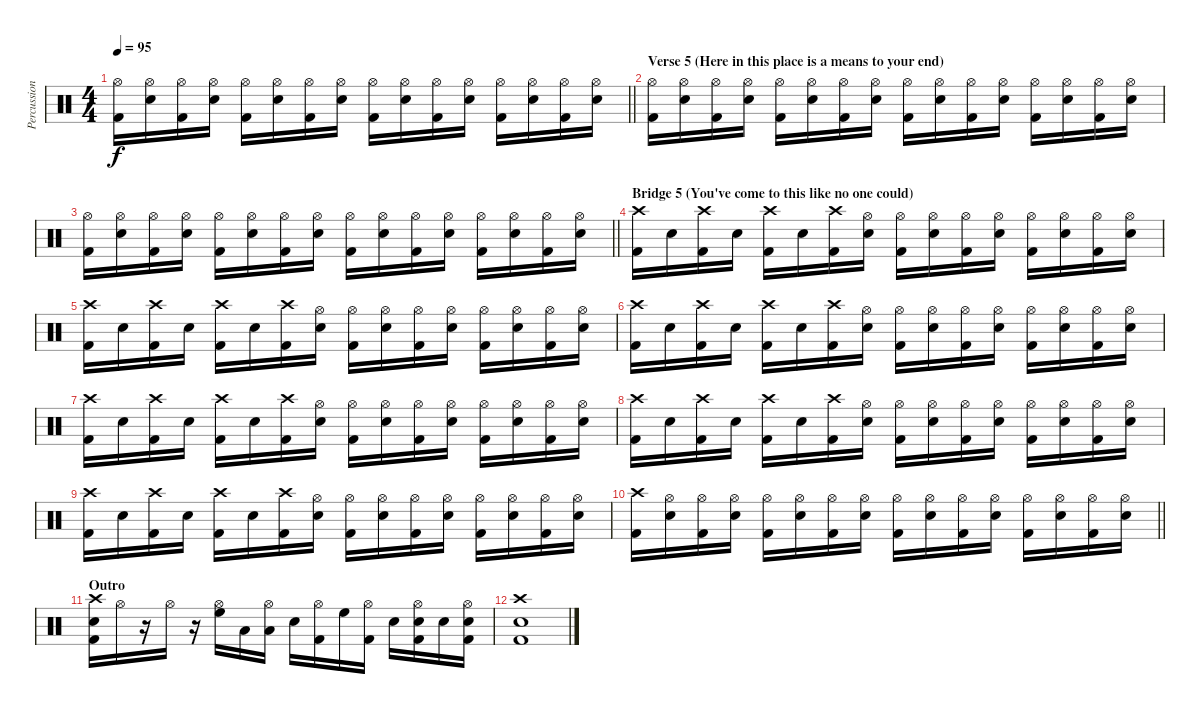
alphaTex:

\track ("Percussion" "Percussion") {instrument percussion}
\staff {score}
\articulation defaults
\ts (4 4)
\tempo 95
\clef neutral
\barLineRight lightlight
\ks c
("Hi-Hat (open)" "Kick (hit) 2").16{dy f} ("Hi-Hat (open)" "Electric Snare (hit)").16 ("Hi-Hat (open)" "Kick (hit) 2").16 ("Hi-Hat (open)" "Electric Snare (hit)").16 ("Hi-Hat (open)" "Kick (hit) 2").16 ("Hi-Hat (open)" "Electric Snare (hit)").16 ("Hi-Hat (open)" "Kick (hit) 2").16 ("Hi-Hat (open)" "Electric Snare (hit)").16 ("Hi-Hat (open)" "Kick (hit) 2").16 ("Hi-Hat (open)" "Electric Snare (hit)").16 ("Hi-Hat (open)" "Kick (hit) 2").16 ("Hi-Hat (open)" "Electric Snare (hit)").16 ("Hi-Hat (open)" "Kick (hit) 2").16 ("Hi-Hat (open)" "Electric Snare (hit)").16 ("Hi-Hat (open)" "Kick (hit) 2").16 ("Hi-Hat (open)" "Electric Snare (hit)").16 |
\section ("" "Verse 5 (Here in this place is a means to your end)")
("Hi-Hat (open)" "Kick (hit) 2").16 ("Hi-Hat (open)" "Electric Snare (hit)").16 ("Hi-Hat (open)" "Kick (hit) 2").16 ("Hi-Hat (open)" "Electric Snare (hit)").16 ("Hi-Hat (open)" "Kick (hit) 2").16 ("Hi-Hat (open)" "Electric Snare (hit)").16 ("Hi-Hat (open)" "Kick (hit) 2").16 ("Hi-Hat (open)" "Electric Snare (hit)").16 ("Hi-Hat (open)" "Kick (hit) 2").16 ("Hi-Hat (open)" "Electric Snare (hit)").16 ("Hi-Hat (open)" "Kick (hit) 2").16 ("Hi-Hat (open)" "Electric Snare (hit)").16 ("Hi-Hat (open)" "Kick (hit) 2").16 ("Hi-Hat (open)" "Electric Snare (hit)").16 ("Hi-Hat (open)" "Kick (hit) 2").16 ("Hi-Hat (open)" "Electric Snare (hit)").16 |
\barLineRight lightlight
("Hi-Hat (open)" "Kick (hit) 2").16 ("Hi-Hat (open)" "Electric Snare (hit)").16 ("Hi-Hat (open)" "Kick (hit) 2").16 ("Hi-Hat (open)" "Electric Snare (hit)").16 ("Hi-Hat (open)" "Kick (hit) 2").16 ("Hi-Hat (open)" "Electric Snare (hit)").16 ("Hi-Hat (open)" "Kick (hit) 2").16 ("Hi-Hat (open)" "Electric Snare (hit)").16 ("Hi-Hat (open)" "Kick (hit) 2").16 ("Hi-Hat (open)" "Electric Snare (hit)").16 ("Hi-Hat (open)" "Kick (hit) 2").16 ("Hi-Hat (open)" "Electric Snare (hit)").16 ("Hi-Hat (open)" "Kick (hit) 2").16 ("Hi-Hat (open)" "Electric Snare (hit)").16 ("Hi-Hat (open)" "Kick (hit) 2").16 ("Hi-Hat (open)" "Electric Snare (hit)").16 |
\section ("" "Bridge 5 (You've come to this like no one could)")
("Crash high (hit)" "Kick (hit) 2").16 "Electric Snare (hit)".16 ("Crash high (hit)" "Kick (hit) 2").16 "Electric Snare (hit)".16 ("Crash high (hit)" "Kick (hit) 2").16 "Electric Snare (hit)".16 ("Crash high (hit)" "Kick (hit) 2").16 ("Hi-Hat (open)" "Electric Snare (hit)").16 ("Hi-Hat (open)" "Kick (hit) 2").16 ("Hi-Hat (open)" "Electric Snare (hit)").16 ("Hi-Hat (open)" "Kick (hit) 2").16 ("Hi-Hat (open)" "Electric Snare (hit)").16 ("Hi-Hat (open)" "Kick (hit) 2").16 ("Hi-Hat (open)" "Electric Snare (hit)").16 ("Hi-Hat (open)" "Kick (hit) 2").16 ("Hi-Hat (open)" "Electric Snare (hit)").16 |
("Crash high (hit)" "Kick (hit) 2").16 "Electric Snare (hit)".16 ("Crash high (hit)" "Kick (hit) 2").16 "Electric Snare (hit)".16 ("Crash high (hit)" "Kick (hit) 2").16 "Electric Snare (hit)".16 ("Crash high (hit)" "Kick (hit) 2").16 ("Hi-Hat (open)" "Electric Snare (hit)").16 ("Hi-Hat (open)" "Kick (hit) 2").16 ("Hi-Hat (open)" "Electric Snare (hit)").16 ("Hi-Hat (open)" "Kick (hit) 2").16 ("Hi-Hat (open)" "Electric Snare (hit)").16 ("Hi-Hat (open)" "Kick (hit) 2").16 ("Hi-Hat (open)" "Electric Snare (hit)").16 ("Hi-Hat (open)" "Kick (hit) 2").16 ("Hi-Hat (open)" "Electric Snare (hit)").16 |
("Crash high (hit)" "Kick (hit) 2").16 "Electric Snare (hit)".16 ("Crash high (hit)" "Kick (hit) 2").16 "Electric Snare (hit)".16 ("Crash high (hit)" "Kick (hit) 2").16 "Electric Snare (hit)".16 ("Crash high (hit)" "Kick (hit) 2").16 ("Hi-Hat (open)" "Electric Snare (hit)").16 ("Hi-Hat (open)" "Kick (hit) 2").16 ("Hi-Hat (open)" "Electric Snare (hit)").16 ("Hi-Hat (open)" "Kick (hit) 2").16 ("Hi-Hat (open)" "Electric Snare (hit)").16 ("Hi-Hat (open)" "Kick (hit) 2").16 ("Hi-Hat (open)" "Electric Snare (hit)").16 ("Hi-Hat (open)" "Kick (hit) 2").16 ("Hi-Hat (open)" "Electric Snare (hit)").16 |
("Crash high (hit)" "Kick (hit) 2").16 "Electric Snare (hit)".16 ("Crash high (hit)" "Kick (hit) 2").16 "Electric Snare (hit)".16 ("Crash high (hit)" "Kick (hit) 2").16 "Electric Snare (hit)".16 ("Crash high (hit)" "Kick (hit) 2").16 ("Hi-Hat (open)" "Electric Snare (hit)").16 ("Hi-Hat (open)" "Kick (hit) 2").16 ("Hi-Hat (open)" "Electric Snare (hit)").16 ("Hi-Hat (open)" "Kick (hit) 2").16 ("Hi-Hat (open)" "Electric Snare (hit)").16 ("Hi-Hat (open)" "Kick (hit) 2").16 ("Hi-Hat (open)" "Electric Snare (hit)").16 ("Hi-Hat (open)" "Kick (hit) 2").16 ("Hi-Hat (open)" "Electric Snare (hit)").16 |
("Crash high (hit)" "Kick (hit) 2").16 "Electric Snare (hit)".16 ("Crash high (hit)" "Kick (hit) 2").16 "Electric Snare (hit)".16 ("Crash high (hit)" "Kick (hit) 2").16 "Electric Snare (hit)".16 ("Crash high (hit)" "Kick (hit) 2").16 ("Hi-Hat (open)" "Electric Snare (hit)").16 ("Hi-Hat (open)" "Kick (hit) 2").16 ("Hi-Hat (open)" "Electric Snare (hit)").16 ("Hi-Hat (open)" "Kick (hit) 2").16 ("Hi-Hat (open)" "Electric Snare (hit)").16 ("Hi-Hat (open)" "Kick (hit) 2").16 ("Hi-Hat (open)" "Electric Snare (hit)").16 ("Hi-Hat (open)" "Kick (hit) 2").16 ("Hi-Hat (open)" "Electric Snare (hit)").16 |
("Crash high (hit)" "Kick (hit) 2").16 "Electric Snare (hit)".16 ("Crash high (hit)" "Kick (hit) 2").16 "Electric Snare (hit)".16 ("Crash high (hit)" "Kick (hit) 2").16 "Electric Snare (hit)".16 ("Crash high (hit)" "Kick (hit) 2").16 ("Hi-Hat (open)" "Electric Snare (hit)").16 ("Hi-Hat (open)" "Kick (hit) 2").16 ("Hi-Hat (open)" "Electric Snare (hit)").16 ("Hi-Hat (open)" "Kick (hit) 2").16 ("Hi-Hat (open)" "Electric Snare (hit)").16 ("Hi-Hat (open)" "Kick (hit) 2").16 ("Hi-Hat (open)" "Electric Snare (hit)").16 ("Hi-Hat (open)" "Kick (hit) 2").16 ("Hi-Hat (open)" "Electric Snare (hit)").16 |
\barLineRight lightlight
("Crash high (hit)" "Kick (hit) 2").16 ("Hi-Hat (open)" "Electric Snare (hit)").16 ("Hi-Hat (open)" "Kick (hit) 2").16 ("Hi-Hat (open)" "Electric Snare (hit)").16 ("Hi-Hat (open)" "Kick (hit) 2").16 ("Hi-Hat (open)" "Electric Snare (hit)").16 ("Hi-Hat (open)" "Kick (hit) 2").16 ("Hi-Hat (open)" "Electric Snare (hit)").16 ("Hi-Hat (open)" "Kick (hit) 2").16 ("Hi-Hat (open)" "Electric Snare (hit)").16 ("Hi-Hat (open)" "Kick (hit) 2").16 ("Hi-Hat (open)" "Electric Snare (hit)").16 ("Hi-Hat (open)" "Kick (hit) 2").16 ("Hi-Hat (open)" "Electric Snare (hit)").16 ("Hi-Hat (open)" "Kick (hit) 2").16 ("Hi-Hat (open)" "Electric Snare (hit)").16 |
\section ("" "Outro")
("Crash high (hit)" "Electric Snare (hit)" "Kick (hit) 2").16 "Hi-Hat (open)".16 r.16 "Hi-Hat (open)".16 r.16 ("Hi-Hat (open)" "High Floor Tom (hit)").16 "Low Tom (hit)".16 ("Hi-Hat (open)" "Low Floor Tom (hit)").16 "Electric Snare (hit)".16 ("Hi-Hat (open)" "Kick (hit) 2").16 "High Floor Tom (hit)".16 ("Hi-Hat (open)" "Kick (hit) 2").16 "Electric Snare (hit)".16 ("Hi-Hat (open)" "Electric Snare (hit)" "Kick (hit) 2").16 "Electric Snare (hit)".16 ("Hi-Hat (open)" "Electric Snare (hit)" "Kick (hit) 2").16 |
("Crash high (hit)" "Electric Snare (hit)" "Kick (hit) 2").1
